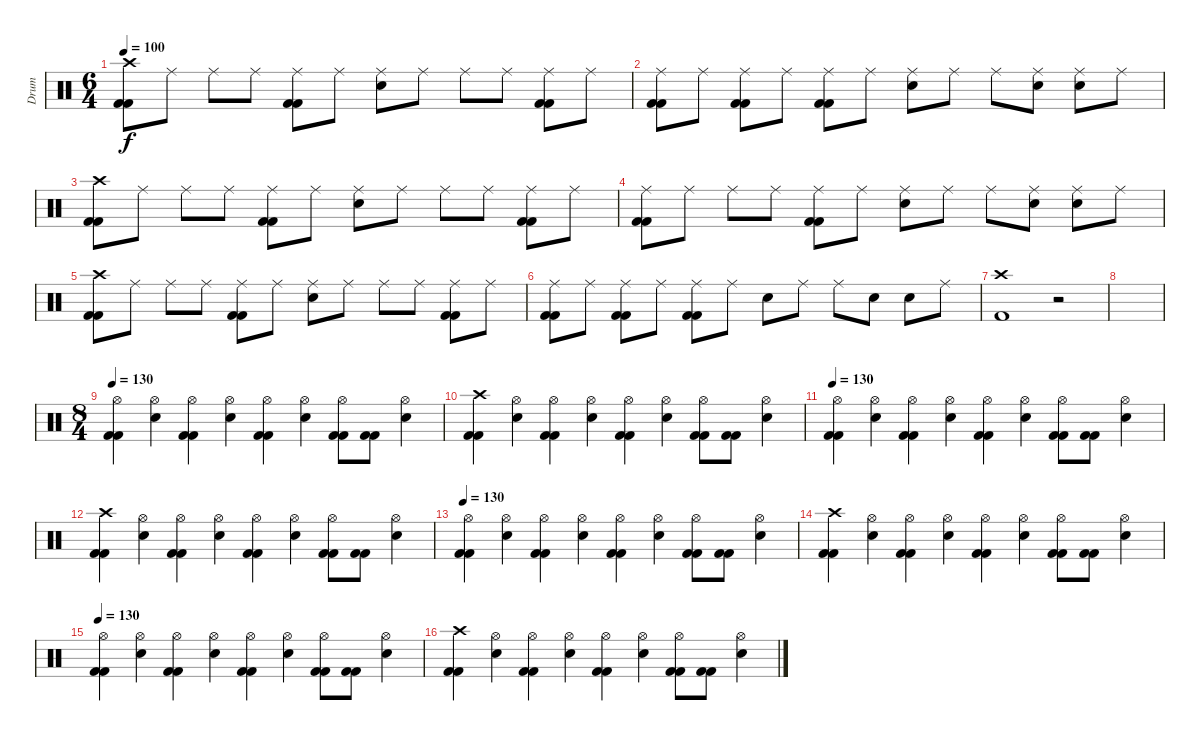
\track ("Drum" "Drum") {instrument percussion}
\staff {score}
\articulation defaults
\ts (6 4)
\tempo 100
\clef neutral
\ks c
("Crash high (hit)" "Kick (hit) 2" "Kick (hit) 2").8{dy f} "Ride (middle)".8 "Ride (middle)".8 "Ride (middle)".8 ("Ride (middle)" "Kick (hit) 2" "Kick (hit) 2").8 "Ride (middle)".8 ("Ride (middle)" "Electric Snare (hit)").8 "Ride (middle)".8 "Ride (middle)".8 "Ride (middle)".8 ("Ride (middle)" "Kick (hit) 2" "Kick (hit) 2").8 "Ride (middle)".8 |
("Ride (middle)" "Kick (hit) 2" "Kick (hit) 2").8 "Ride (middle)".8 ("Ride (middle)" "Kick (hit) 2" "Kick (hit) 2").8 "Ride (middle)".8 ("Ride (middle)" "Kick (hit) 2" "Kick (hit) 2").8 "Ride (middle)".8 ("Ride (middle)" "Electric Snare (hit)").8 "Ride (middle)".8 "Ride (middle)".8 ("Ride (middle)" "Electric Snare (hit)").8 ("Ride (middle)" "Electric Snare (hit)").8 "Ride (middle)".8 |
("Crash high (hit)" "Kick (hit) 2" "Kick (hit) 2").8 "Ride (middle)".8 "Ride (middle)".8 "Ride (middle)".8 ("Ride (middle)" "Kick (hit) 2" "Kick (hit) 2").8 "Ride (middle)".8 ("Ride (middle)" "Electric Snare (hit)").8 "Ride (middle)".8 "Ride (middle)".8 "Ride (middle)".8 ("Ride (middle)" "Kick (hit) 2" "Kick (hit) 2").8 "Ride (middle)".8 |
("Ride (middle)" "Kick (hit) 2" "Kick (hit) 2").8 "Ride (middle)".8 "Ride (middle)".8 "Ride (middle)".8 ("Ride (middle)" "Kick (hit) 2" "Kick (hit) 2").8 "Ride (middle)".8 ("Ride (middle)" "Electric Snare (hit)").8 "Ride (middle)".8 "Ride (middle)".8 ("Ride (middle)" "Electric Snare (hit)").8 ("Ride (middle)" "Electric Snare (hit)").8 "Ride (middle)".8 |
("Crash high (hit)" "Kick (hit) 2" "Kick (hit) 2").8 "Ride (middle)".8 "Ride (middle)".8 "Ride (middle)".8 ("Ride (middle)" "Kick (hit) 2" "Kick (hit) 2").8 "Ride (middle)".8 ("Ride (middle)" "Electric Snare (hit)").8 "Ride (middle)".8 "Ride (middle)".8 "Ride (middle)".8 ("Ride (middle)" "Kick (hit) 2" "Kick (hit) 2").8 "Ride (middle)".8 |
("Ride (middle)" "Kick (hit) 2" "Kick (hit) 2").8 "Ride (middle)".8 ("Ride (middle)" "Kick (hit) 2" "Kick (hit) 2").8 "Ride (middle)".8 ("Ride (middle)" "Kick (hit) 2" "Kick (hit) 2").8 "Ride (middle)".8 "Electric Snare (hit)".8 "Ride (middle)".8 "Ride (middle)".8 "Electric Snare (hit)".8 "Electric Snare (hit)".8 "Ride (middle)".8 |
("Crash high (hit)" "Kick (hit) 2").1 r.2 |
|
\ts (8 4)
\tempo 130
("Hi-Hat (open)" "Kick (hit) 2" "Kick (hit) 2").4 ("Hi-Hat (open)" "Electric Snare (hit)").4 ("Hi-Hat (open)" "Kick (hit) 2" "Kick (hit) 2").4 ("Hi-Hat (open)" "Electric Snare (hit)").4 ("Hi-Hat (open)" "Kick (hit) 2" "Kick (hit) 2").4 ("Hi-Hat (open)" "Electric Snare (hit)").4 ("Hi-Hat (open)" "Kick (hit) 2" "Kick (hit) 2").8 ("Kick (hit) 2" "Kick (hit) 2").8 ("Hi-Hat (open)" "Electric Snare (hit)").4 |
("Crash high (hit)" "Kick (hit) 2" "Kick (hit) 2").4 ("Hi-Hat (open)" "Electric Snare (hit)").4 ("Hi-Hat (open)" "Kick (hit) 2" "Kick (hit) 2").4 ("Hi-Hat (open)" "Electric Snare (hit)").4 ("Hi-Hat (open)" "Kick (hit) 2" "Kick (hit) 2").4 ("Hi-Hat (open)" "Electric Snare (hit)").4 ("Hi-Hat (open)" "Kick (hit) 2" "Kick (hit) 2").8 ("Kick (hit) 2" "Kick (hit) 2").8 ("Hi-Hat (open)" "Electric Snare (hit)").4 |
\tempo 130
("Hi-Hat (open)" "Kick (hit) 2" "Kick (hit) 2").4 ("Hi-Hat (open)" "Electric Snare (hit)").4 ("Hi-Hat (open)" "Kick (hit) 2" "Kick (hit) 2").4 ("Hi-Hat (open)" "Electric Snare (hit)").4 ("Hi-Hat (open)" "Kick (hit) 2" "Kick (hit) 2").4 ("Hi-Hat (open)" "Electric Snare (hit)").4 ("Hi-Hat (open)" "Kick (hit) 2" "Kick (hit) 2").8 ("Kick (hit) 2" "Kick (hit) 2").8 ("Hi-Hat (open)" "Electric Snare (hit)").4 |
("Crash high (hit)" "Kick (hit) 2" "Kick (hit) 2").4 ("Hi-Hat (open)" "Electric Snare (hit)").4 ("Hi-Hat (open)" "Kick (hit) 2" "Kick (hit) 2").4 ("Hi-Hat (open)" "Electric Snare (hit)").4 ("Hi-Hat (open)" "Kick (hit) 2" "Kick (hit) 2").4 ("Hi-Hat (open)" "Electric Snare (hit)").4 ("Hi-Hat (open)" "Kick (hit) 2" "Kick (hit) 2").8 ("Kick (hit) 2" "Kick (hit) 2").8 ("Hi-Hat (open)" "Electric Snare (hit)").4 |
\tempo 130
("Hi-Hat (open)" "Kick (hit) 2" "Kick (hit) 2").4 ("Hi-Hat (open)" "Electric Snare (hit)").4 ("Hi-Hat (open)" "Kick (hit) 2" "Kick (hit) 2").4 ("Hi-Hat (open)" "Electric Snare (hit)").4 ("Hi-Hat (open)" "Kick (hit) 2" "Kick (hit) 2").4 ("Hi-Hat (open)" "Electric Snare (hit)").4 ("Hi-Hat (open)" "Kick (hit) 2" "Kick (hit) 2").8 ("Kick (hit) 2" "Kick (hit) 2").8 ("Hi-Hat (open)" "Electric Snare (hit)").4 |
("Crash high (hit)" "Kick (hit) 2" "Kick (hit) 2").4 ("Hi-Hat (open)" "Electric Snare (hit)").4 ("Hi-Hat (open)" "Kick (hit) 2" "Kick (hit) 2").4 ("Hi-Hat (open)" "Electric Snare (hit)").4 ("Hi-Hat (open)" "Kick (hit) 2" "Kick (hit) 2").4 ("Hi-Hat (open)" "Electric Snare (hit)").4 ("Hi-Hat (open)" "Kick (hit) 2" "Kick (hit) 2").8 ("Kick (hit) 2" "Kick (hit) 2").8 ("Hi-Hat (open)" "Electric Snare (hit)").4 |
\tempo 130
("Hi-Hat (open)" "Kick (hit) 2" "Kick (hit) 2").4 ("Hi-Hat (open)" "Electric Snare (hit)").4 ("Hi-Hat (open)" "Kick (hit) 2" "Kick (hit) 2").4 ("Hi-Hat (open)" "Electric Snare (hit)").4 ("Hi-Hat (open)" "Kick (hit) 2" "Kick (hit) 2").4 ("Hi-Hat (open)" "Electric Snare (hit)").4 ("Hi-Hat (open)" "Kick (hit) 2" "Kick (hit) 2").8 ("Kick (hit) 2" "Kick (hit) 2").8 ("Hi-Hat (open)" "Electric Snare (hit)").4 |
("Crash high (hit)" "Kick (hit) 2" "Kick (hit) 2").4 ("Hi-Hat (open)" "Electric Snare (hit)").4 ("Hi-Hat (open)" "Kick (hit) 2" "Kick (hit) 2").4 ("Hi-Hat (open)" "Electric Snare (hit)").4 ("Hi-Hat (open)" "Kick (hit) 2" "Kick (hit) 2").4 ("Hi-Hat (open)" "Electric Snare (hit)").4 ("Hi-Hat (open)" "Kick (hit) 2" "Kick (hit) 2").8 ("Kick (hit) 2" "Kick (hit) 2").8 ("Hi-Hat (open)" "Electric Snare (hit)").4
